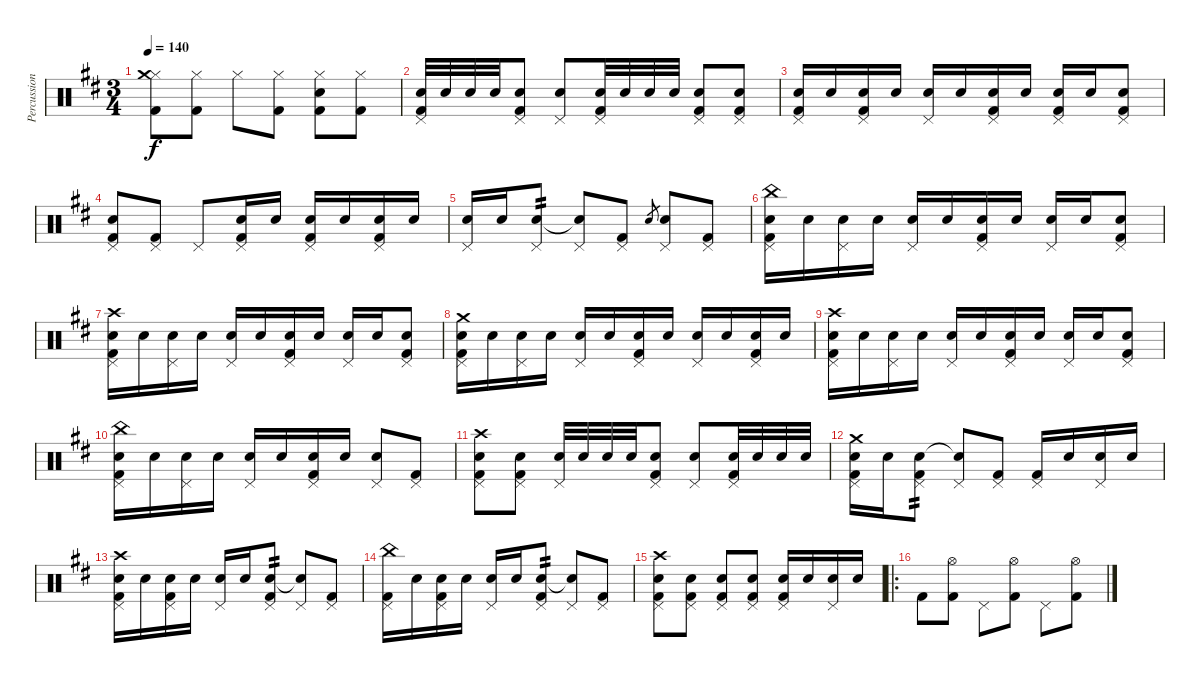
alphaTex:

\track ("Percussions" "Percussion") {instrument percussion}
\staff {score}
\articulation defaults
\ts (3 4)
\tempo 140
\clef neutral
\ks d
("Hi-Hat (closed)" "Crash medium (hit)" "Kick (hit) 2").8{dy f} ("Hi-Hat (closed)" "Kick (hit) 2").8 "Hi-Hat (closed)".8 ("Hi-Hat (closed)" "Kick (hit) 2").8 ("Hi-Hat (closed)" "Snare (hit) 2" "Kick (hit) 2").8 ("Hi-Hat (closed)" "Kick (hit) 2").8 |
("Pedal Hi-Hat (hit)" "Snare (hit) 2" "Kick (hit) 2").32{volume 12 balance 8} "Snare (hit) 2".32 "Snare (hit) 2".32 "Snare (hit) 2".32 ("Pedal Hi-Hat (hit)" "Snare (hit) 2" "Kick (hit) 2").8 ("Pedal Hi-Hat (hit)" "Snare (hit) 2").8 ("Pedal Hi-Hat (hit)" "Snare (hit) 2" "Kick (hit) 2").32 "Snare (hit) 2".32 "Snare (hit) 2".32 "Snare (hit) 2".32 ("Pedal Hi-Hat (hit)" "Snare (hit) 2" "Kick (hit) 2").8 ("Pedal Hi-Hat (hit)" "Snare (hit) 2" "Kick (hit) 2").8 |
("Pedal Hi-Hat (hit)" "Snare (hit) 2" "Kick (hit) 2").16 "Snare (hit) 2".16 ("Pedal Hi-Hat (hit)" "Snare (hit) 2" "Kick (hit) 2").16 "Snare (hit) 2".16 ("Pedal Hi-Hat (hit)" "Snare (hit) 2").16 "Snare (hit) 2".16 ("Pedal Hi-Hat (hit)" "Snare (hit) 2" "Kick (hit) 2").16 "Snare (hit) 2".16 ("Pedal Hi-Hat (hit)" "Snare (hit) 2" "Kick (hit) 2").16 "Snare (hit) 2".16 ("Pedal Hi-Hat (hit)" "Snare (hit) 2" "Kick (hit) 2").8 |
("Pedal Hi-Hat (hit)" "Snare (hit) 2" "Kick (hit) 2").8 ("Pedal Hi-Hat (hit)" "Kick (hit) 2").8 "Pedal Hi-Hat (hit)".8 ("Pedal Hi-Hat (hit)" "Snare (hit) 2" "Kick (hit) 2").16 "Snare (hit) 2".16 ("Pedal Hi-Hat (hit)" "Snare (hit) 2" "Kick (hit) 2").16 "Snare (hit) 2".16 ("Pedal Hi-Hat (hit)" "Snare (hit) 2" "Kick (hit) 2").16 "Snare (hit) 2".16 |
("Pedal Hi-Hat (hit)" "Snare (hit) 2").16 "Snare (hit) 2".16 ("Pedal Hi-Hat (hit)" "Snare (hit) 2").8{tp 2} ("Pedal Hi-Hat (hit)" "Snare (hit) 2"{t}).8 ("Pedal Hi-Hat (hit)" "Kick (hit) 2").8 "Snare (hit) 2".8{gr} ("Pedal Hi-Hat (hit)" "Snare (hit) 2").8 ("Pedal Hi-Hat (hit)" "Kick (hit) 2").8 |
("Pedal Hi-Hat (hit)" "China (hit)" "Snare (hit) 2" "Kick (hit) 2").16 "Snare (hit) 2".16 ("Pedal Hi-Hat (hit)" "Snare (hit) 2").16 "Snare (hit) 2".16 ("Pedal Hi-Hat (hit)" "Snare (hit) 2").16 "Snare (hit) 2".16 ("Pedal Hi-Hat (hit)" "Snare (hit) 2" "Kick (hit) 2").16 "Snare (hit) 2".16 ("Pedal Hi-Hat (hit)" "Snare (hit) 2").16 "Snare (hit) 2".16 ("Pedal Hi-Hat (hit)" "Snare (hit) 2" "Kick (hit) 2").8 |
("Pedal Hi-Hat (hit)" "Crash high (hit)" "Snare (hit) 2" "Kick (hit) 2").16 "Snare (hit) 2".16 ("Pedal Hi-Hat (hit)" "Snare (hit) 2").16 "Snare (hit) 2".16 ("Pedal Hi-Hat (hit)" "Snare (hit) 2").16 "Snare (hit) 2".16 ("Pedal Hi-Hat (hit)" "Snare (hit) 2" "Kick (hit) 2").16 "Snare (hit) 2".16 ("Pedal Hi-Hat (hit)" "Snare (hit) 2").16 "Snare (hit) 2".16 ("Pedal Hi-Hat (hit)" "Snare (hit) 2" "Kick (hit) 2").8 |
("Pedal Hi-Hat (hit)" "Crash medium (hit)" "Snare (hit) 2" "Kick (hit) 2").16 "Snare (hit) 2".16 ("Pedal Hi-Hat (hit)" "Snare (hit) 2").16 "Snare (hit) 2".16 ("Pedal Hi-Hat (hit)" "Snare (hit) 2").16 "Snare (hit) 2".16 ("Pedal Hi-Hat (hit)" "Snare (hit) 2" "Kick (hit) 2").16 "Snare (hit) 2".16 ("Pedal Hi-Hat (hit)" "Snare (hit) 2").16 "Snare (hit) 2".16 ("Pedal Hi-Hat (hit)" "Snare (hit) 2" "Kick (hit) 2").16 "Snare (hit) 2".16 |
("Pedal Hi-Hat (hit)" "Crash high (hit)" "Snare (hit) 2" "Kick (hit) 2").16 "Snare (hit) 2".16 ("Pedal Hi-Hat (hit)" "Snare (hit) 2").16 "Snare (hit) 2".16 ("Pedal Hi-Hat (hit)" "Snare (hit) 2").16 "Snare (hit) 2".16 ("Pedal Hi-Hat (hit)" "Snare (hit) 2" "Kick (hit) 2").16 "Snare (hit) 2".16 ("Pedal Hi-Hat (hit)" "Snare (hit) 2").16 "Snare (hit) 2".16 ("Pedal Hi-Hat (hit)" "Snare (hit) 2" "Kick (hit) 2").8 |
("Pedal Hi-Hat (hit)" "China (hit)" "Snare (hit) 2" "Kick (hit) 2").16 "Snare (hit) 2".16 ("Pedal Hi-Hat (hit)" "Snare (hit) 2").16 "Snare (hit) 2".16 ("Pedal Hi-Hat (hit)" "Snare (hit) 2").16 "Snare (hit) 2".16 ("Pedal Hi-Hat (hit)" "Snare (hit) 2" "Kick (hit) 2").16 "Snare (hit) 2".16 ("Pedal Hi-Hat (hit)" "Snare (hit) 2").8 ("Pedal Hi-Hat (hit)" "Kick (hit) 2").8 |
("Pedal Hi-Hat (hit)" "Crash high (hit)" "Snare (hit) 2" "Kick (hit) 2").8 ("Pedal Hi-Hat (hit)" "Snare (hit) 2" "Kick (hit) 2").8 ("Pedal Hi-Hat (hit)" "Snare (hit) 2").32 "Snare (hit) 2".32 "Snare (hit) 2".32 "Snare (hit) 2".32 ("Pedal Hi-Hat (hit)" "Snare (hit) 2" "Kick (hit) 2").8 ("Pedal Hi-Hat (hit)" "Snare (hit) 2").8 ("Pedal Hi-Hat (hit)" "Snare (hit) 2" "Kick (hit) 2").32 "Snare (hit) 2".32 "Snare (hit) 2".32 "Snare (hit) 2".32 |
("Pedal Hi-Hat (hit)" "Crash medium (hit)" "Snare (hit) 2" "Kick (hit) 2").16 "Snare (hit) 2".16 ("Pedal Hi-Hat (hit)" "Snare (hit) 2" "Kick (hit) 2").8{tp 2} ("Pedal Hi-Hat (hit)" "Snare (hit) 2"{t}).8 ("Pedal Hi-Hat (hit)" "Kick (hit) 2").8 ("Pedal Hi-Hat (hit)" "Kick (hit) 2").16 "Snare (hit) 2".16 ("Pedal Hi-Hat (hit)" "Snare (hit) 2").16 "Snare (hit) 2".16 |
("Pedal Hi-Hat (hit)" "Crash high (hit)" "Snare (hit) 2" "Kick (hit) 2").16 "Snare (hit) 2".16 ("Pedal Hi-Hat (hit)" "Snare (hit) 2" "Kick (hit) 2").16 "Snare (hit) 2".16 ("Pedal Hi-Hat (hit)" "Snare (hit) 2").16 "Snare (hit) 2".16 ("Pedal Hi-Hat (hit)" "Snare (hit) 2" "Kick (hit) 2").8{tp 2} ("Pedal Hi-Hat (hit)" "Snare (hit) 2"{t}).8 ("Pedal Hi-Hat (hit)" "Kick (hit) 2").8 |
("Pedal Hi-Hat (hit)" "China (hit)" "Kick (hit) 2").16 "Snare (hit) 2".16 ("Pedal Hi-Hat (hit)" "Snare (hit) 2" "Kick (hit) 2").16 "Snare (hit) 2".16 ("Pedal Hi-Hat (hit)" "Snare (hit) 2").16 "Snare (hit) 2".16 ("Pedal Hi-Hat (hit)" "Snare (hit) 2" "Kick (hit) 2").8{tp 2} ("Pedal Hi-Hat (hit)" "Snare (hit) 2"{t}).8 ("Pedal Hi-Hat (hit)" "Kick (hit) 2").8 |
("Pedal Hi-Hat (hit)" "Crash high (hit)" "Snare (hit) 2" "Kick (hit) 2").8 ("Pedal Hi-Hat (hit)" "Snare (hit) 2" "Kick (hit) 2").8 ("Pedal Hi-Hat (hit)" "Snare (hit) 2" "Kick (hit) 2").8 ("Pedal Hi-Hat (hit)" "Snare (hit) 2" "Kick (hit) 2").8 ("Pedal Hi-Hat (hit)" "Snare (hit) 2" "Kick (hit) 2").16 "Snare (hit) 2".16 ("Pedal Hi-Hat (hit)" "Snare (hit) 2").16 "Snare (hit) 2".16 |
\ro "Kick (hit) 2".8{volume 13 balance 8}
("Hi-Hat (open)" "Kick (hit) 2").8 "Pedal Hi-Hat (hit)".8 ("Hi-Hat (open)" "Kick (hit) 2").8 "Pedal Hi-Hat (hit)".8 ("Hi-Hat (open)" "Kick (hit) 2").8
